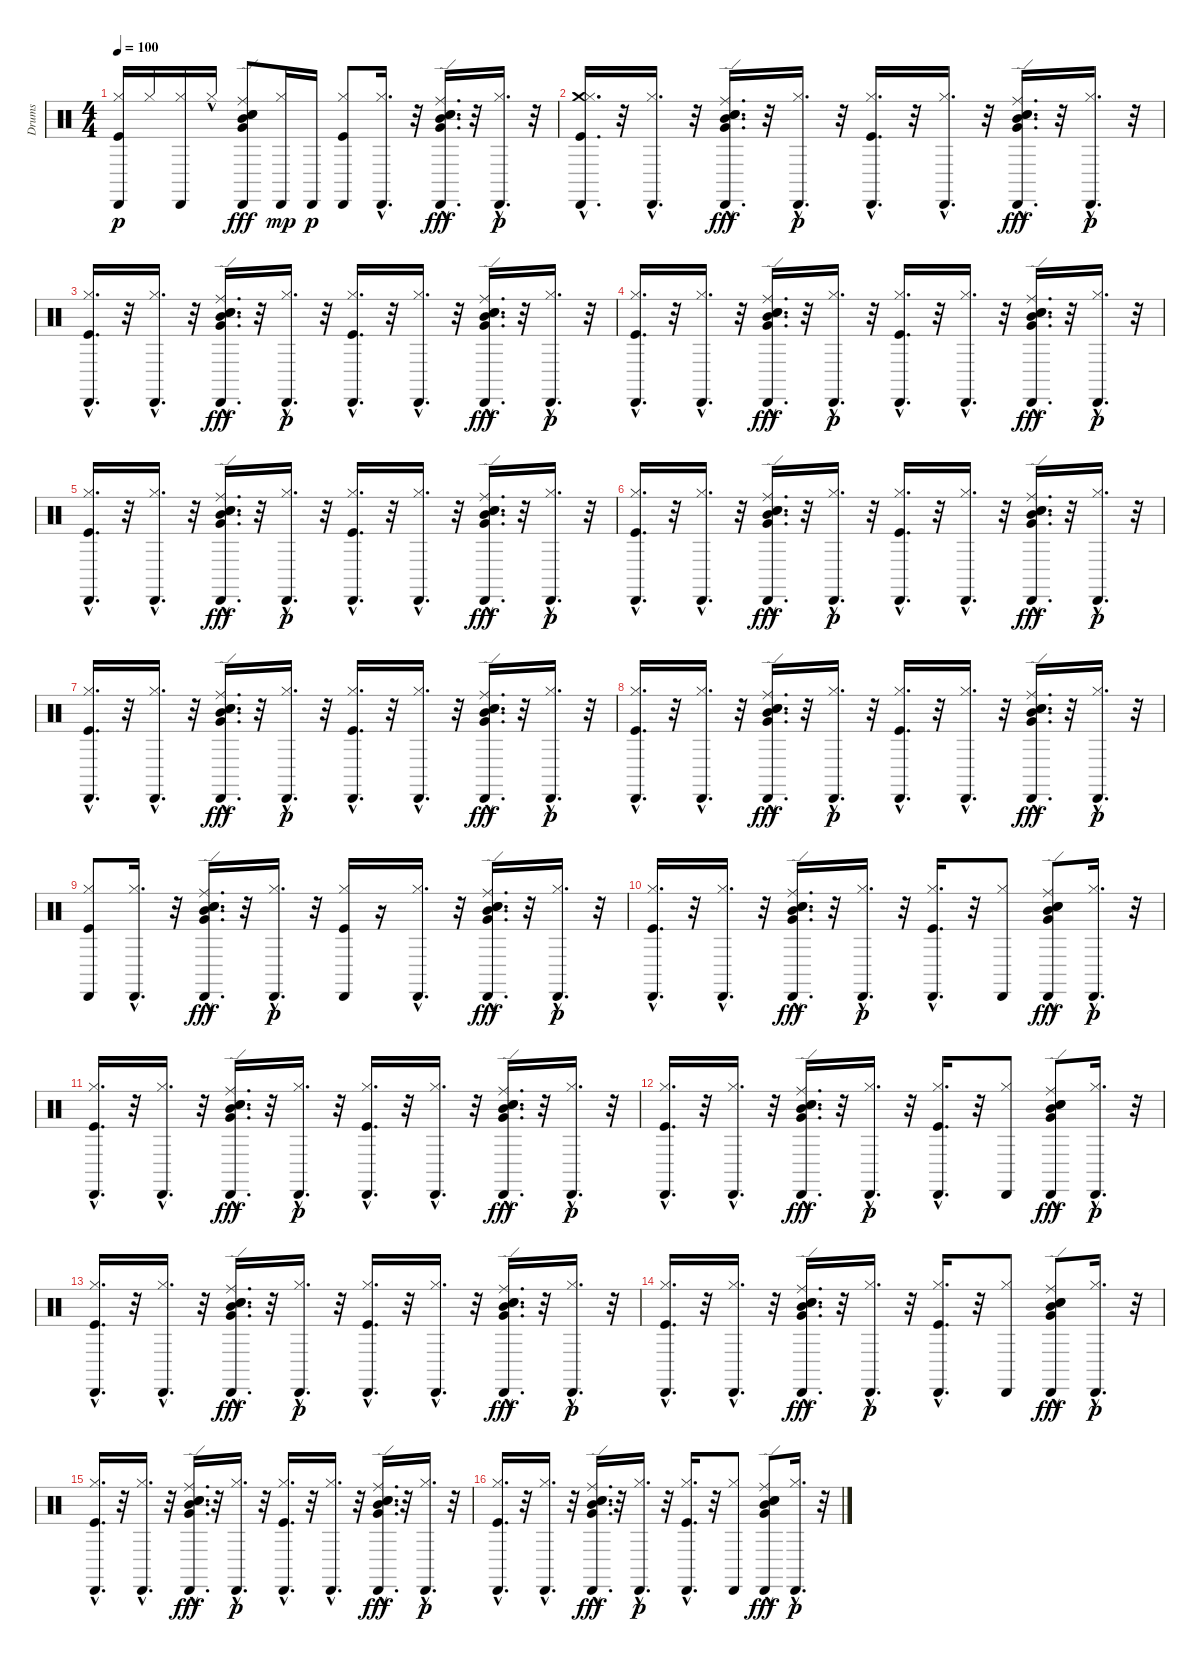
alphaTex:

\track ("Drums" "Drums") {instrument percussion}
\staff {score}
\articulation defaults
\ts (4 4)
\tempo 100
\clef neutral
\ks c
("Hi-Hat (closed)" "Kick (hit)" "Cabasa (hit)").16{dy p} "Hi-Hat (closed)".16 ("Hi-Hat (closed)" "Cabasa (hit)").16 "Hi-Hat (closed)"{hac}.16 ("Electric Snare (hit)" "Snare (hit) 2" "Ride (edge)" "Mid Tom (hit)" "Cabasa (hit)" "Very Low Tom (hit)").8{dy fff} ("Cabasa (hit)" "Hi-Hat (closed)").16{dy mp} "Cabasa (hit)".16{dy p} ("Hi-Hat (closed)" "Kick (hit)" "Cabasa (hit)").8 ("Hi-Hat (closed)"{hac} "Cabasa (hit)"{hac}).16{d} r.32 ("Electric Snare (hit)"{hac} "Snare (hit) 2"{hac} "Ride (edge)"{hac} "Mid Tom (hit)"{hac} "Cabasa (hit)"{hac} "Very Low Tom (hit)"{hac}).16{d dy fff} r.32 ("Hi-Hat (closed)"{hac} "Cabasa (hit)"{hac}).16{d dy p} r.32 |
("Crash medium (hit)" "Hi-Hat (closed)"{hac} "Kick (hit)"{hac} "Cabasa (hit)"{hac}).16{d} r.32 ("Hi-Hat (closed)"{hac} "Cabasa (hit)"{hac}).16{d} r.32 ("Electric Snare (hit)"{hac} "Snare (hit) 2"{hac} "Ride (edge)"{hac} "Mid Tom (hit)"{hac} "Cabasa (hit)"{hac} "Very Low Tom (hit)"{hac}).16{d dy fff} r.32 ("Hi-Hat (closed)"{hac} "Cabasa (hit)"{hac}).16{d dy p} r.32 ("Hi-Hat (closed)"{hac} "Kick (hit)"{hac} "Cabasa (hit)"{hac}).16{d} r.32 ("Hi-Hat (closed)"{hac} "Cabasa (hit)"{hac}).16{d} r.32 ("Electric Snare (hit)"{hac} "Snare (hit) 2"{hac} "Ride (edge)"{hac} "Mid Tom (hit)"{hac} "Cabasa (hit)"{hac} "Very Low Tom (hit)"{hac}).16{d dy fff} r.32 ("Hi-Hat (closed)"{hac} "Cabasa (hit)"{hac}).16{d dy p} r.32 |
("Hi-Hat (closed)"{hac} "Kick (hit)"{hac} "Cabasa (hit)"{hac}).16{d} r.32 ("Hi-Hat (closed)"{hac} "Cabasa (hit)"{hac}).16{d} r.32 ("Electric Snare (hit)"{hac} "Snare (hit) 2"{hac} "Ride (edge)"{hac} "Mid Tom (hit)"{hac} "Cabasa (hit)"{hac} "Very Low Tom (hit)"{hac}).16{d dy fff} r.32 ("Hi-Hat (closed)"{hac} "Cabasa (hit)"{hac}).16{d dy p} r.32 ("Hi-Hat (closed)"{hac} "Kick (hit)"{hac} "Cabasa (hit)"{hac}).16{d} r.32 ("Hi-Hat (closed)"{hac} "Cabasa (hit)"{hac}).16{d} r.32 ("Electric Snare (hit)"{hac} "Snare (hit) 2"{hac} "Ride (edge)"{hac} "Mid Tom (hit)"{hac} "Cabasa (hit)"{hac} "Very Low Tom (hit)"{hac}).16{d dy fff} r.32 ("Hi-Hat (closed)"{hac} "Cabasa (hit)"{hac}).16{d dy p} r.32 |
("Hi-Hat (closed)"{hac} "Kick (hit)"{hac} "Cabasa (hit)"{hac}).16{d} r.32 ("Hi-Hat (closed)"{hac} "Cabasa (hit)"{hac}).16{d} r.32 ("Electric Snare (hit)"{hac} "Snare (hit) 2"{hac} "Ride (edge)"{hac} "Mid Tom (hit)"{hac} "Cabasa (hit)"{hac} "Very Low Tom (hit)"{hac}).16{d dy fff} r.32 ("Hi-Hat (closed)"{hac} "Cabasa (hit)"{hac}).16{d dy p} r.32 ("Hi-Hat (closed)"{hac} "Kick (hit)"{hac} "Cabasa (hit)"{hac}).16{d} r.32 ("Hi-Hat (closed)"{hac} "Cabasa (hit)"{hac}).16{d} r.32 ("Electric Snare (hit)"{hac} "Snare (hit) 2"{hac} "Ride (edge)"{hac} "Mid Tom (hit)"{hac} "Cabasa (hit)"{hac} "Very Low Tom (hit)"{hac}).16{d dy fff} r.32 ("Hi-Hat (closed)"{hac} "Cabasa (hit)"{hac}).16{d dy p} r.32 |
("Hi-Hat (closed)"{hac} "Kick (hit)"{hac} "Cabasa (hit)"{hac}).16{d} r.32 ("Hi-Hat (closed)"{hac} "Cabasa (hit)"{hac}).16{d} r.32 ("Electric Snare (hit)"{hac} "Snare (hit) 2"{hac} "Ride (edge)"{hac} "Mid Tom (hit)"{hac} "Cabasa (hit)"{hac} "Very Low Tom (hit)"{hac}).16{d dy fff} r.32 ("Hi-Hat (closed)"{hac} "Cabasa (hit)"{hac}).16{d dy p} r.32 ("Hi-Hat (closed)"{hac} "Kick (hit)"{hac} "Cabasa (hit)"{hac}).16{d} r.32 ("Hi-Hat (closed)"{hac} "Cabasa (hit)"{hac}).16{d} r.32 ("Electric Snare (hit)"{hac} "Snare (hit) 2"{hac} "Ride (edge)"{hac} "Mid Tom (hit)"{hac} "Cabasa (hit)"{hac} "Very Low Tom (hit)"{hac}).16{d dy fff} r.32 ("Hi-Hat (closed)"{hac} "Cabasa (hit)"{hac}).16{d dy p} r.32 |
("Hi-Hat (closed)"{hac} "Kick (hit)"{hac} "Cabasa (hit)"{hac}).16{d} r.32 ("Hi-Hat (closed)"{hac} "Cabasa (hit)"{hac}).16{d} r.32 ("Electric Snare (hit)"{hac} "Snare (hit) 2"{hac} "Ride (edge)"{hac} "Mid Tom (hit)"{hac} "Cabasa (hit)"{hac} "Very Low Tom (hit)"{hac}).16{d dy fff} r.32 ("Hi-Hat (closed)"{hac} "Cabasa (hit)"{hac}).16{d dy p} r.32 ("Hi-Hat (closed)"{hac} "Kick (hit)"{hac} "Cabasa (hit)"{hac}).16{d} r.32 ("Hi-Hat (closed)"{hac} "Cabasa (hit)"{hac}).16{d} r.32 ("Electric Snare (hit)"{hac} "Snare (hit) 2"{hac} "Ride (edge)"{hac} "Mid Tom (hit)"{hac} "Cabasa (hit)"{hac} "Very Low Tom (hit)"{hac}).16{d dy fff} r.32 ("Hi-Hat (closed)"{hac} "Cabasa (hit)"{hac}).16{d dy p} r.32 |
("Hi-Hat (closed)"{hac} "Kick (hit)"{hac} "Cabasa (hit)"{hac}).16{d} r.32 ("Hi-Hat (closed)"{hac} "Cabasa (hit)"{hac}).16{d} r.32 ("Electric Snare (hit)"{hac} "Snare (hit) 2"{hac} "Ride (edge)"{hac} "Mid Tom (hit)"{hac} "Cabasa (hit)"{hac} "Very Low Tom (hit)"{hac}).16{d dy fff} r.32 ("Hi-Hat (closed)"{hac} "Cabasa (hit)"{hac}).16{d dy p} r.32 ("Hi-Hat (closed)"{hac} "Kick (hit)"{hac} "Cabasa (hit)"{hac}).16{d} r.32 ("Hi-Hat (closed)"{hac} "Cabasa (hit)"{hac}).16{d} r.32 ("Electric Snare (hit)"{hac} "Snare (hit) 2"{hac} "Ride (edge)"{hac} "Mid Tom (hit)"{hac} "Cabasa (hit)"{hac} "Very Low Tom (hit)"{hac}).16{d dy fff} r.32 ("Hi-Hat (closed)"{hac} "Cabasa (hit)"{hac}).16{d dy p} r.32 |
("Hi-Hat (closed)"{hac} "Kick (hit)"{hac} "Cabasa (hit)"{hac}).16{d} r.32 ("Hi-Hat (closed)"{hac} "Cabasa (hit)"{hac}).16{d} r.32 ("Electric Snare (hit)"{hac} "Snare (hit) 2"{hac} "Ride (edge)"{hac} "Mid Tom (hit)"{hac} "Cabasa (hit)"{hac} "Very Low Tom (hit)"{hac}).16{d dy fff} r.32 ("Hi-Hat (closed)"{hac} "Cabasa (hit)"{hac}).16{d dy p} r.32 ("Hi-Hat (closed)"{hac} "Kick (hit)"{hac} "Cabasa (hit)"{hac}).16{d} r.32 ("Hi-Hat (closed)"{hac} "Cabasa (hit)"{hac}).16{d} r.32 ("Electric Snare (hit)"{hac} "Snare (hit) 2"{hac} "Ride (edge)"{hac} "Mid Tom (hit)"{hac} "Cabasa (hit)"{hac} "Very Low Tom (hit)"{hac}).16{d dy fff} r.32 ("Hi-Hat (closed)"{hac} "Cabasa (hit)"{hac}).16{d dy p} r.32 |
("Hi-Hat (closed)" "Kick (hit)" "Cabasa (hit)").8 ("Hi-Hat (closed)"{hac} "Cabasa (hit)"{hac}).16{d} r.32 ("Electric Snare (hit)"{hac} "Snare (hit) 2"{hac} "Ride (edge)"{hac} "Mid Tom (hit)"{hac} "Cabasa (hit)"{hac} "Very Low Tom (hit)"{hac}).16{d dy fff} r.32 ("Hi-Hat (closed)"{hac} "Cabasa (hit)"{hac}).16{d dy p} r.32 ("Hi-Hat (closed)" "Kick (hit)" "Cabasa (hit)").16 r.16 ("Hi-Hat (closed)"{hac} "Cabasa (hit)"{hac}).16{d} r.32 ("Electric Snare (hit)"{hac} "Snare (hit) 2"{hac} "Ride (edge)"{hac} "Mid Tom (hit)"{hac} "Cabasa (hit)"{hac} "Very Low Tom (hit)"{hac}).16{d dy fff} r.32 ("Hi-Hat (closed)"{hac} "Cabasa (hit)"{hac}).16{d dy p} r.32 |
("Hi-Hat (closed)"{hac} "Kick (hit)"{hac} "Cabasa (hit)"{hac}).16{d} r.32 ("Hi-Hat (closed)"{hac} "Cabasa (hit)"{hac}).16{d} r.32 ("Electric Snare (hit)"{hac} "Snare (hit) 2"{hac} "Ride (edge)"{hac} "Mid Tom (hit)"{hac} "Cabasa (hit)"{hac} "Very Low Tom (hit)"{hac}).16{d dy fff} r.32 ("Hi-Hat (closed)"{hac} "Cabasa (hit)"{hac}).16{d dy p} r.32 ("Hi-Hat (closed)"{hac} "Kick (hit)" "Cabasa (hit)"{hac}).16{d} r.32 ("Hi-Hat (closed)" "Cabasa (hit)").8 ("Electric Snare (hit)" "Snare (hit) 2"{hac} "Ride (edge)"{hac} "Mid Tom (hit)"{hac} "Cabasa (hit)" "Very Low Tom (hit)"{hac}).8{dy fff} ("Hi-Hat (closed)"{hac} "Cabasa (hit)"{hac}).16{d dy p} r.32 |
("Hi-Hat (closed)"{hac} "Kick (hit)"{hac} "Cabasa (hit)"{hac}).16{d} r.32 ("Hi-Hat (closed)"{hac} "Cabasa (hit)"{hac}).16{d} r.32 ("Electric Snare (hit)"{hac} "Snare (hit) 2"{hac} "Ride (edge)"{hac} "Mid Tom (hit)"{hac} "Cabasa (hit)"{hac} "Very Low Tom (hit)"{hac}).16{d dy fff} r.32 ("Hi-Hat (closed)"{hac} "Cabasa (hit)"{hac}).16{d dy p} r.32 ("Hi-Hat (closed)"{hac} "Kick (hit)"{hac} "Cabasa (hit)"{hac}).16{d} r.32 ("Hi-Hat (closed)"{hac} "Cabasa (hit)"{hac}).16{d} r.32 ("Electric Snare (hit)"{hac} "Snare (hit) 2"{hac} "Ride (edge)"{hac} "Mid Tom (hit)"{hac} "Cabasa (hit)"{hac} "Very Low Tom (hit)"{hac}).16{d dy fff} r.32 ("Hi-Hat (closed)"{hac} "Cabasa (hit)"{hac}).16{d dy p} r.32 |
("Hi-Hat (closed)"{hac} "Kick (hit)"{hac} "Cabasa (hit)"{hac}).16{d} r.32 ("Hi-Hat (closed)"{hac} "Cabasa (hit)"{hac}).16{d} r.32 ("Electric Snare (hit)"{hac} "Snare (hit) 2"{hac} "Ride (edge)"{hac} "Mid Tom (hit)"{hac} "Cabasa (hit)"{hac} "Very Low Tom (hit)"{hac}).16{d dy fff} r.32 ("Hi-Hat (closed)"{hac} "Cabasa (hit)"{hac}).16{d dy p} r.32 ("Hi-Hat (closed)"{hac} "Kick (hit)" "Cabasa (hit)"{hac}).16{d} r.32 ("Hi-Hat (closed)" "Cabasa (hit)").8 ("Electric Snare (hit)" "Snare (hit) 2"{hac} "Ride (edge)"{hac} "Mid Tom (hit)"{hac} "Cabasa (hit)" "Very Low Tom (hit)"{hac}).8{dy fff} ("Hi-Hat (closed)"{hac} "Cabasa (hit)"{hac}).16{d dy p} r.32 |
("Hi-Hat (closed)"{hac} "Kick (hit)"{hac} "Cabasa (hit)"{hac}).16{d} r.32 ("Hi-Hat (closed)"{hac} "Cabasa (hit)"{hac}).16{d} r.32 ("Electric Snare (hit)"{hac} "Snare (hit) 2"{hac} "Ride (edge)"{hac} "Mid Tom (hit)"{hac} "Cabasa (hit)"{hac} "Very Low Tom (hit)"{hac}).16{d dy fff} r.32 ("Hi-Hat (closed)"{hac} "Cabasa (hit)"{hac}).16{d dy p} r.32 ("Hi-Hat (closed)"{hac} "Kick (hit)"{hac} "Cabasa (hit)"{hac}).16{d} r.32 ("Hi-Hat (closed)"{hac} "Cabasa (hit)"{hac}).16{d} r.32 ("Electric Snare (hit)"{hac} "Snare (hit) 2"{hac} "Ride (edge)"{hac} "Mid Tom (hit)"{hac} "Cabasa (hit)"{hac} "Very Low Tom (hit)"{hac}).16{d dy fff} r.32 ("Hi-Hat (closed)"{hac} "Cabasa (hit)"{hac}).16{d dy p} r.32 |
("Hi-Hat (closed)"{hac} "Kick (hit)"{hac} "Cabasa (hit)"{hac}).16{d} r.32 ("Hi-Hat (closed)"{hac} "Cabasa (hit)"{hac}).16{d} r.32 ("Electric Snare (hit)"{hac} "Snare (hit) 2"{hac} "Ride (edge)"{hac} "Mid Tom (hit)"{hac} "Cabasa (hit)"{hac} "Very Low Tom (hit)"{hac}).16{d dy fff} r.32 ("Hi-Hat (closed)"{hac} "Cabasa (hit)"{hac}).16{d dy p} r.32 ("Hi-Hat (closed)"{hac} "Kick (hit)" "Cabasa (hit)"{hac}).16{d} r.32 ("Hi-Hat (closed)" "Cabasa (hit)").8 ("Electric Snare (hit)" "Snare (hit) 2"{hac} "Ride (edge)"{hac} "Mid Tom (hit)"{hac} "Cabasa (hit)" "Very Low Tom (hit)"{hac}).8{dy fff} ("Hi-Hat (closed)"{hac} "Cabasa (hit)"{hac}).16{d dy p} r.32 |
("Hi-Hat (closed)"{hac} "Kick (hit)"{hac} "Cabasa (hit)"{hac}).16{d} r.32 ("Hi-Hat (closed)"{hac} "Cabasa (hit)"{hac}).16{d} r.32 ("Electric Snare (hit)"{hac} "Snare (hit) 2"{hac} "Ride (edge)"{hac} "Mid Tom (hit)"{hac} "Cabasa (hit)"{hac} "Very Low Tom (hit)"{hac}).16{d dy fff} r.32 ("Hi-Hat (closed)"{hac} "Cabasa (hit)"{hac}).16{d dy p} r.32 ("Hi-Hat (closed)"{hac} "Kick (hit)"{hac} "Cabasa (hit)"{hac}).16{d} r.32 ("Hi-Hat (closed)"{hac} "Cabasa (hit)"{hac}).16{d} r.32 ("Electric Snare (hit)"{hac} "Snare (hit) 2"{hac} "Ride (edge)"{hac} "Mid Tom (hit)"{hac} "Cabasa (hit)"{hac} "Very Low Tom (hit)"{hac}).16{d dy fff} r.32 ("Hi-Hat (closed)"{hac} "Cabasa (hit)"{hac}).16{d dy p} r.32 |
("Hi-Hat (closed)"{hac} "Kick (hit)"{hac} "Cabasa (hit)"{hac}).16{d} r.32 ("Hi-Hat (closed)"{hac} "Cabasa (hit)"{hac}).16{d} r.32 ("Electric Snare (hit)"{hac} "Snare (hit) 2"{hac} "Ride (edge)"{hac} "Mid Tom (hit)"{hac} "Cabasa (hit)"{hac} "Very Low Tom (hit)"{hac}).16{d dy fff} r.32 ("Hi-Hat (closed)"{hac} "Cabasa (hit)"{hac}).16{d dy p} r.32 ("Hi-Hat (closed)"{hac} "Kick (hit)" "Cabasa (hit)"{hac}).16{d} r.32 ("Hi-Hat (closed)" "Cabasa (hit)").8 ("Electric Snare (hit)" "Snare (hit) 2"{hac} "Ride (edge)"{hac} "Mid Tom (hit)"{hac} "Cabasa (hit)" "Very Low Tom (hit)"{hac}).8{dy fff} ("Hi-Hat (closed)"{hac} "Cabasa (hit)"{hac}).16{d dy p} r.32
